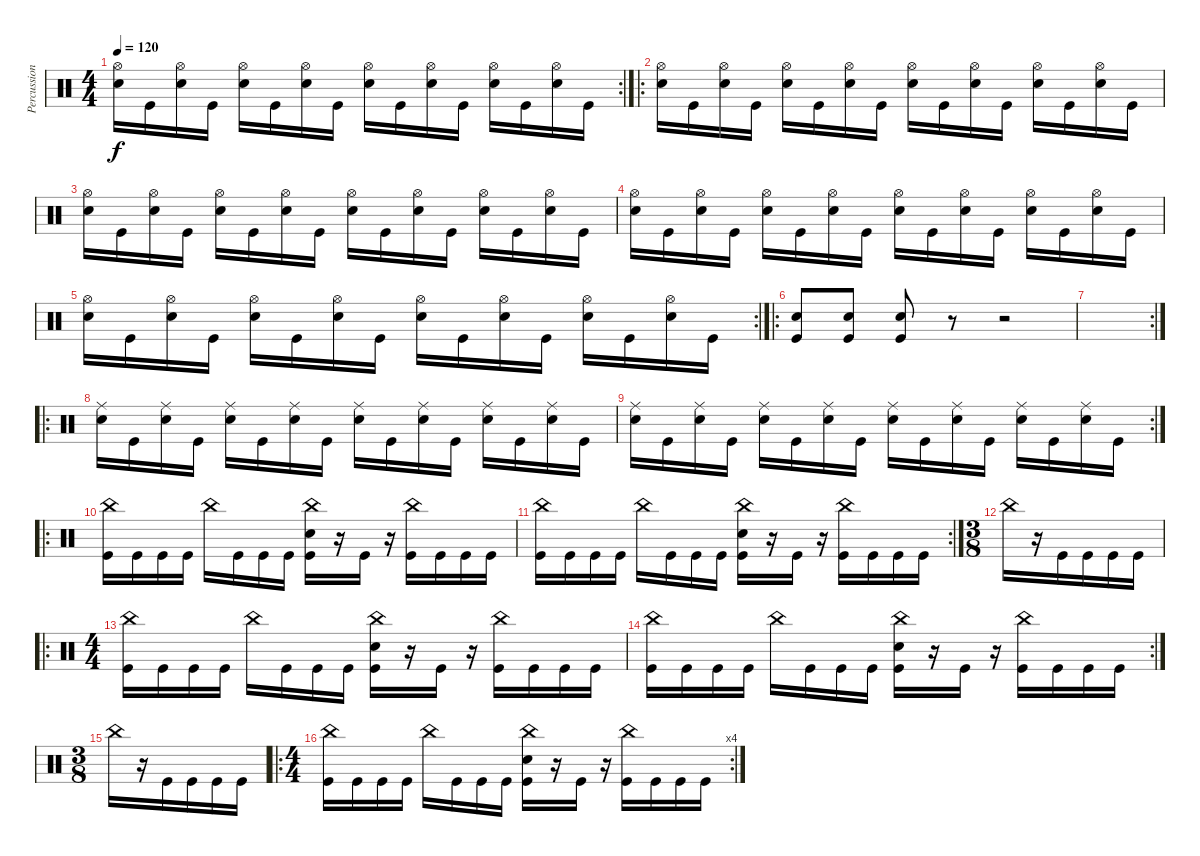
\track ("Percussion" "Percussion") {instrument percussion}
\staff {score}
\articulation defaults
\rc 2
\ts (4 4)
\tempo 120
\clef neutral
\ks c
("Hi-Hat (open)" "Snare (hit) 2").16{dy f} "Kick (hit)".16 ("Hi-Hat (open)" "Snare (hit) 2").16 "Kick (hit)".16 ("Hi-Hat (open)" "Snare (hit) 2").16 "Kick (hit)".16 ("Hi-Hat (open)" "Snare (hit) 2").16 "Kick (hit)".16 ("Hi-Hat (open)" "Snare (hit) 2").16 "Kick (hit)".16 ("Hi-Hat (open)" "Snare (hit) 2").16 "Kick (hit)".16 ("Hi-Hat (open)" "Snare (hit) 2").16 "Kick (hit)".16 ("Hi-Hat (open)" "Snare (hit) 2").16 "Kick (hit)".16 |
\ro
("Hi-Hat (open)" "Snare (hit) 2").16 "Kick (hit)".16 ("Hi-Hat (open)" "Snare (hit) 2").16 "Kick (hit)".16 ("Hi-Hat (open)" "Snare (hit) 2").16 "Kick (hit)".16 ("Hi-Hat (open)" "Snare (hit) 2").16 "Kick (hit)".16 ("Hi-Hat (open)" "Snare (hit) 2").16 "Kick (hit)".16 ("Hi-Hat (open)" "Snare (hit) 2").16 "Kick (hit)".16 ("Hi-Hat (open)" "Snare (hit) 2").16 "Kick (hit)".16 ("Hi-Hat (open)" "Snare (hit) 2").16 "Kick (hit)".16 |
("Hi-Hat (open)" "Snare (hit) 2").16 "Kick (hit)".16 ("Hi-Hat (open)" "Snare (hit) 2").16 "Kick (hit)".16 ("Hi-Hat (open)" "Snare (hit) 2").16 "Kick (hit)".16 ("Hi-Hat (open)" "Snare (hit) 2").16 "Kick (hit)".16 ("Hi-Hat (open)" "Snare (hit) 2").16 "Kick (hit)".16 ("Hi-Hat (open)" "Snare (hit) 2").16 "Kick (hit)".16 ("Hi-Hat (open)" "Snare (hit) 2").16 "Kick (hit)".16 ("Hi-Hat (open)" "Snare (hit) 2").16 "Kick (hit)".16 |
("Hi-Hat (open)" "Snare (hit) 2").16 "Kick (hit)".16 ("Hi-Hat (open)" "Snare (hit) 2").16 "Kick (hit)".16 ("Hi-Hat (open)" "Snare (hit) 2").16 "Kick (hit)".16 ("Hi-Hat (open)" "Snare (hit) 2").16 "Kick (hit)".16 ("Hi-Hat (open)" "Snare (hit) 2").16 "Kick (hit)".16 ("Hi-Hat (open)" "Snare (hit) 2").16 "Kick (hit)".16 ("Hi-Hat (open)" "Snare (hit) 2").16 "Kick (hit)".16 ("Hi-Hat (open)" "Snare (hit) 2").16 "Kick (hit)".16 |
\rc 2
("Hi-Hat (open)" "Snare (hit) 2").16 "Kick (hit)".16 ("Hi-Hat (open)" "Snare (hit) 2").16 "Kick (hit)".16 ("Hi-Hat (open)" "Snare (hit) 2").16 "Kick (hit)".16 ("Hi-Hat (open)" "Snare (hit) 2").16 "Kick (hit)".16 ("Hi-Hat (open)" "Snare (hit) 2").16 "Kick (hit)".16 ("Hi-Hat (open)" "Snare (hit) 2").16 "Kick (hit)".16 ("Hi-Hat (open)" "Snare (hit) 2").16 "Kick (hit)".16 ("Hi-Hat (open)" "Snare (hit) 2").16 "Kick (hit)".16 |
\ro
("Snare (hit) 2" "Kick (hit)").8 ("Snare (hit) 2" "Kick (hit)").8 ("Snare (hit) 2" "Kick (hit)").8 r.8 r.2 |
\rc 2
|
\ro
("Ride (middle)" "Snare (hit) 2").16 "Kick (hit)".16 ("Ride (middle)" "Snare (hit) 2").16 "Kick (hit)".16 ("Ride (middle)" "Snare (hit) 2").16 "Kick (hit)".16 ("Ride (middle)" "Snare (hit) 2").16 "Kick (hit)".16 ("Ride (middle)" "Snare (hit) 2").16 "Kick (hit)".16 ("Ride (middle)" "Snare (hit) 2").16 "Kick (hit)".16 ("Ride (middle)" "Snare (hit) 2").16 "Kick (hit)".16 ("Ride (middle)" "Snare (hit) 2").16 "Kick (hit)".16 |
\rc 2
("Ride (middle)" "Snare (hit) 2").16 "Kick (hit)".16 ("Ride (middle)" "Snare (hit) 2").16 "Kick (hit)".16 ("Ride (middle)" "Snare (hit) 2").16 "Kick (hit)".16 ("Ride (middle)" "Snare (hit) 2").16 "Kick (hit)".16 ("Ride (middle)" "Snare (hit) 2").16 "Kick (hit)".16 ("Ride (middle)" "Snare (hit) 2").16 "Kick (hit)".16 ("Ride (middle)" "Snare (hit) 2").16 "Kick (hit)".16 ("Ride (middle)" "Snare (hit) 2").16 "Kick (hit)".16 |
\ro
("China (hit)" "Kick (hit)").16 "Kick (hit)".16 "Kick (hit)".16 "Kick (hit)".16 "China (hit)".16 "Kick (hit)".16 "Kick (hit)".16 "Kick (hit)".16 ("China (hit)" "Snare (hit) 2" "Kick (hit)").16 r.16 "Kick (hit)".16 r.16 ("China (hit)" "Kick (hit)").16 "Kick (hit)".16 "Kick (hit)".16 "Kick (hit)".16 |
\rc 2
("China (hit)" "Kick (hit)").16 "Kick (hit)".16 "Kick (hit)".16 "Kick (hit)".16 "China (hit)".16 "Kick (hit)".16 "Kick (hit)".16 "Kick (hit)".16 ("China (hit)" "Snare (hit) 2" "Kick (hit)").16 r.16 "Kick (hit)".16 r.16 ("China (hit)" "Kick (hit)").16 "Kick (hit)".16 "Kick (hit)".16 "Kick (hit)".16 |
\ts (3 8)
"China (hit)".16 r.16 "Kick (hit)".16 "Kick (hit)".16 "Kick (hit)".16 "Kick (hit)".16 |
\ro
\ts (4 4)
("China (hit)" "Kick (hit)").16 "Kick (hit)".16 "Kick (hit)".16 "Kick (hit)".16 "China (hit)".16 "Kick (hit)".16 "Kick (hit)".16 "Kick (hit)".16 ("China (hit)" "Snare (hit) 2" "Kick (hit)").16 r.16 "Kick (hit)".16 r.16 ("China (hit)" "Kick (hit)").16 "Kick (hit)".16 "Kick (hit)".16 "Kick (hit)".16 |
\rc 2
("China (hit)" "Kick (hit)").16 "Kick (hit)".16 "Kick (hit)".16 "Kick (hit)".16 "China (hit)".16 "Kick (hit)".16 "Kick (hit)".16 "Kick (hit)".16 ("China (hit)" "Snare (hit) 2" "Kick (hit)").16 r.16 "Kick (hit)".16 r.16 ("China (hit)" "Kick (hit)").16 "Kick (hit)".16 "Kick (hit)".16 "Kick (hit)".16 |
\ts (3 8)
"China (hit)".16 r.16 "Kick (hit)".16 "Kick (hit)".16 "Kick (hit)".16 "Kick (hit)".16 |
\ro
\rc 4
\ts (4 4)
("China (hit)" "Kick (hit)").16 "Kick (hit)".16 "Kick (hit)".16 "Kick (hit)".16 "China (hit)".16 "Kick (hit)".16 "Kick (hit)".16 "Kick (hit)".16 ("China (hit)" "Snare (hit) 2" "Kick (hit)").16 r.16 "Kick (hit)".16 r.16 ("China (hit)" "Kick (hit)").16 "Kick (hit)".16 "Kick (hit)".16 "Kick (hit)".16
